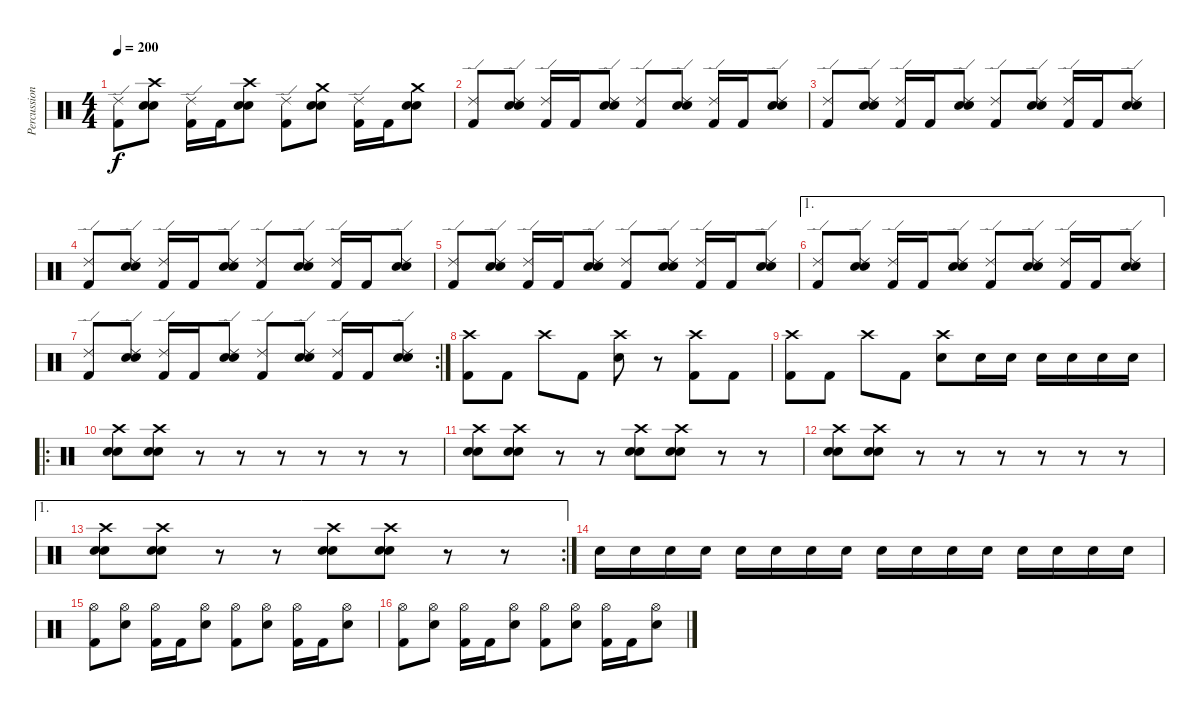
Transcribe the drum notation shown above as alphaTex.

\track ("Percussion" "Percussion") {instrument percussion}
\staff {score}
\articulation defaults
\ts (4 4)
\tempo 200
\clef neutral
\ks c
("Ride (edge) 2" "Kick (hit) 2").8{dy f} ("Crash high (hit)" "Electric Snare (hit)" "Electric Snare (hit)").8 ("Ride (edge) 2" "Kick (hit) 2").16 "Kick (hit) 2".16 ("Crash high (hit)" "Electric Snare (hit)" "Electric Snare (hit)").8 ("Ride (edge) 2" "Kick (hit) 2").8 ("Crash medium (hit)" "Electric Snare (hit)" "Electric Snare (hit)").8 ("Ride (edge) 2" "Kick (hit) 2").16 "Kick (hit) 2".16 ("Crash medium (hit)" "Electric Snare (hit)" "Electric Snare (hit)").8 |
("Ride (edge) 2" "Kick (hit) 2").8 ("Ride (edge) 2" "Electric Snare (hit)" "Electric Snare (hit)").8 ("Ride (edge) 2" "Kick (hit) 2").16 "Kick (hit) 2".16 ("Ride (edge) 2" "Electric Snare (hit)" "Electric Snare (hit)").8 ("Ride (edge) 2" "Kick (hit) 2").8 ("Ride (edge) 2" "Electric Snare (hit)" "Electric Snare (hit)").8 ("Ride (edge) 2" "Kick (hit) 2").16 "Kick (hit) 2".16 ("Ride (edge) 2" "Electric Snare (hit)" "Electric Snare (hit)").8 |
("Ride (edge) 2" "Kick (hit) 2").8 ("Ride (edge) 2" "Electric Snare (hit)" "Electric Snare (hit)").8 ("Ride (edge) 2" "Kick (hit) 2").16 "Kick (hit) 2".16 ("Ride (edge) 2" "Electric Snare (hit)" "Electric Snare (hit)").8 ("Ride (edge) 2" "Kick (hit) 2").8 ("Ride (edge) 2" "Electric Snare (hit)" "Electric Snare (hit)").8 ("Ride (edge) 2" "Kick (hit) 2").16 "Kick (hit) 2".16 ("Ride (edge) 2" "Electric Snare (hit)" "Electric Snare (hit)").8 |
("Ride (edge) 2" "Kick (hit) 2").8 ("Ride (edge) 2" "Electric Snare (hit)" "Electric Snare (hit)").8 ("Ride (edge) 2" "Kick (hit) 2").16 "Kick (hit) 2".16 ("Ride (edge) 2" "Electric Snare (hit)" "Electric Snare (hit)").8 ("Ride (edge) 2" "Kick (hit) 2").8 ("Ride (edge) 2" "Electric Snare (hit)" "Electric Snare (hit)").8 ("Ride (edge) 2" "Kick (hit) 2").16 "Kick (hit) 2".16 ("Ride (edge) 2" "Electric Snare (hit)" "Electric Snare (hit)").8 |
("Ride (edge) 2" "Kick (hit) 2").8 ("Ride (edge) 2" "Electric Snare (hit)" "Electric Snare (hit)").8 ("Ride (edge) 2" "Kick (hit) 2").16 "Kick (hit) 2".16 ("Ride (edge) 2" "Electric Snare (hit)" "Electric Snare (hit)").8 ("Ride (edge) 2" "Kick (hit) 2").8 ("Ride (edge) 2" "Electric Snare (hit)" "Electric Snare (hit)").8 ("Ride (edge) 2" "Kick (hit) 2").16 "Kick (hit) 2".16 ("Ride (edge) 2" "Electric Snare (hit)" "Electric Snare (hit)").8 |
\ae 1
("Ride (edge) 2" "Kick (hit) 2").8 ("Ride (edge) 2" "Electric Snare (hit)" "Electric Snare (hit)").8 ("Ride (edge) 2" "Kick (hit) 2").16 "Kick (hit) 2".16 ("Ride (edge) 2" "Electric Snare (hit)" "Electric Snare (hit)").8 ("Ride (edge) 2" "Kick (hit) 2").8 ("Ride (edge) 2" "Electric Snare (hit)" "Electric Snare (hit)").8 ("Ride (edge) 2" "Kick (hit) 2").16 "Kick (hit) 2".16 ("Ride (edge) 2" "Electric Snare (hit)" "Electric Snare (hit)").8 |
\rc 2
("Ride (edge) 2" "Kick (hit) 2").8 ("Ride (edge) 2" "Electric Snare (hit)" "Electric Snare (hit)").8 ("Ride (edge) 2" "Kick (hit) 2").16 "Kick (hit) 2".16 ("Ride (edge) 2" "Electric Snare (hit)" "Electric Snare (hit)").8 ("Ride (edge) 2" "Kick (hit) 2").8 ("Ride (edge) 2" "Electric Snare (hit)" "Electric Snare (hit)").8 ("Ride (edge) 2" "Kick (hit) 2").16 "Kick (hit) 2".16 ("Ride (edge) 2" "Electric Snare (hit)" "Electric Snare (hit)").8 |
("Crash high (hit)" "Kick (hit) 2").8 "Kick (hit) 2".8 "Crash high (hit)".8 "Kick (hit) 2".8 ("Crash high (hit)" "Electric Snare (hit)").8 r.8 ("Crash high (hit)" "Kick (hit) 2").8 "Kick (hit) 2".8 |
("Crash high (hit)" "Kick (hit) 2").8 "Kick (hit) 2".8 "Crash high (hit)".8 "Kick (hit) 2".8 ("Crash high (hit)" "Electric Snare (hit)").8 "Electric Snare (hit)".16 "Electric Snare (hit)".16 "Electric Snare (hit)".16 "Electric Snare (hit)".16 "Electric Snare (hit)".16 "Electric Snare (hit)".16 |
\ro
("Crash high (hit)" "Electric Snare (hit)" "Electric Snare (hit)").8 ("Crash high (hit)" "Electric Snare (hit)" "Electric Snare (hit)").8 r.8 r.8 r.8 r.8 r.8 r.8 |
("Crash high (hit)" "Electric Snare (hit)" "Electric Snare (hit)").8 ("Crash high (hit)" "Electric Snare (hit)" "Electric Snare (hit)").8 r.8 r.8 ("Crash high (hit)" "Electric Snare (hit)" "Electric Snare (hit)").8 ("Crash high (hit)" "Electric Snare (hit)" "Electric Snare (hit)").8 r.8 r.8 |
("Crash high (hit)" "Electric Snare (hit)" "Electric Snare (hit)").8 ("Crash high (hit)" "Electric Snare (hit)" "Electric Snare (hit)").8 r.8 r.8 r.8 r.8 r.8 r.8 |
\ae 1
\rc 2
("Crash high (hit)" "Electric Snare (hit)" "Electric Snare (hit)").8 ("Crash high (hit)" "Electric Snare (hit)" "Electric Snare (hit)").8 r.8 r.8 ("Crash high (hit)" "Electric Snare (hit)" "Electric Snare (hit)").8 ("Crash high (hit)" "Electric Snare (hit)" "Electric Snare (hit)").8 r.8 r.8 |
"Electric Snare (hit)".16 "Electric Snare (hit)".16 "Electric Snare (hit)".16 "Electric Snare (hit)".16 "Electric Snare (hit)".16 "Electric Snare (hit)".16 "Electric Snare (hit)".16 "Electric Snare (hit)".16 "Electric Snare (hit)".16 "Electric Snare (hit)".16 "Electric Snare (hit)".16 "Electric Snare (hit)".16 "Electric Snare (hit)".16 "Electric Snare (hit)".16 "Electric Snare (hit)".16 "Electric Snare (hit)".16 |
("Hi-Hat (open)" "Kick (hit) 2").8 ("Hi-Hat (open)" "Electric Snare (hit)").8 ("Hi-Hat (open)" "Kick (hit) 2").16 "Kick (hit) 2".16 ("Hi-Hat (open)" "Electric Snare (hit)").8 ("Hi-Hat (open)" "Kick (hit) 2").8 ("Hi-Hat (open)" "Electric Snare (hit)").8 ("Hi-Hat (open)" "Kick (hit) 2").16 "Kick (hit) 2".16 ("Hi-Hat (open)" "Electric Snare (hit)").8 |
("Hi-Hat (open)" "Kick (hit) 2").8 ("Hi-Hat (open)" "Electric Snare (hit)").8 ("Hi-Hat (open)" "Kick (hit) 2").16 "Kick (hit) 2".16 ("Hi-Hat (open)" "Electric Snare (hit)").8 ("Hi-Hat (open)" "Kick (hit) 2").8 ("Hi-Hat (open)" "Electric Snare (hit)").8 ("Hi-Hat (open)" "Kick (hit) 2").16 "Kick (hit) 2".16 ("Hi-Hat (open)" "Electric Snare (hit)").8
